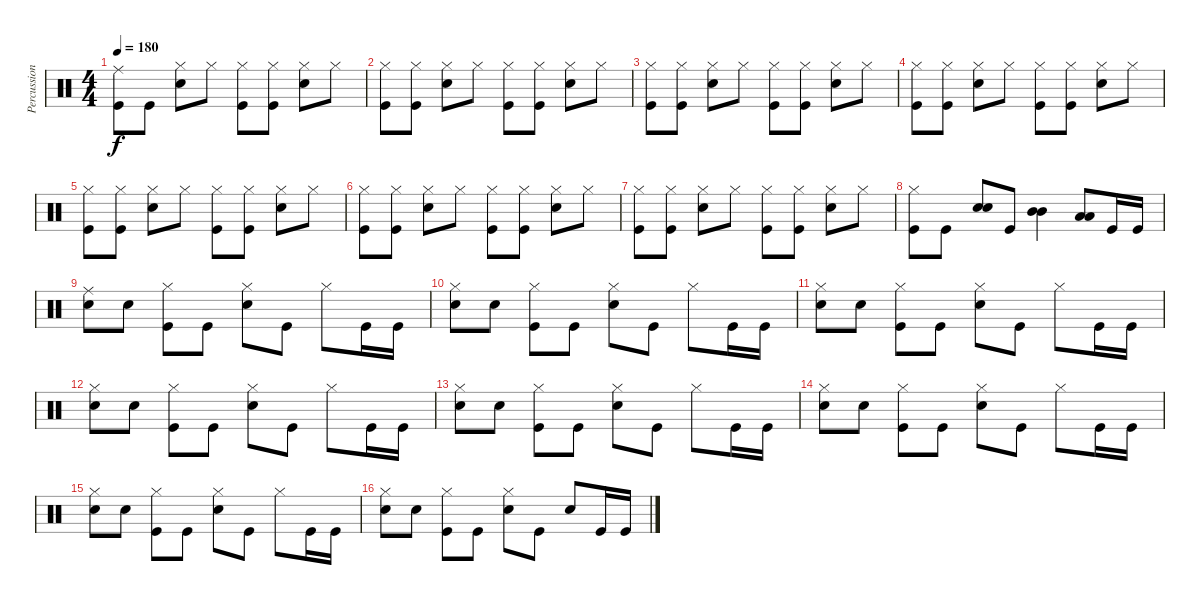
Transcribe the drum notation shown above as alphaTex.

\track ("Percussion" "Percussion") {instrument percussion}
\staff {score}
\articulation defaults
\ts (4 4)
\tempo 180
\clef neutral
\ks c
("Ride (middle)" "Kick (hit)").8{dy f} "Kick (hit)".8 ("Hi-Hat (closed)" "Snare (hit) 2").8 "Hi-Hat (closed)".8 ("Hi-Hat (closed)" "Kick (hit)").8 ("Hi-Hat (closed)" "Kick (hit)").8 ("Hi-Hat (closed)" "Snare (hit) 2").8 "Hi-Hat (closed)".8 |
("Hi-Hat (closed)" "Kick (hit)").8 ("Hi-Hat (closed)" "Kick (hit)").8 ("Hi-Hat (closed)" "Snare (hit) 2").8 "Hi-Hat (closed)".8 ("Hi-Hat (closed)" "Kick (hit)").8 ("Hi-Hat (closed)" "Kick (hit)").8 ("Hi-Hat (closed)" "Snare (hit) 2").8 "Hi-Hat (closed)".8 |
("Hi-Hat (closed)" "Kick (hit)").8 ("Hi-Hat (closed)" "Kick (hit)").8 ("Hi-Hat (closed)" "Snare (hit) 2").8 "Hi-Hat (closed)".8 ("Hi-Hat (closed)" "Kick (hit)").8 ("Hi-Hat (closed)" "Kick (hit)").8 ("Hi-Hat (closed)" "Snare (hit) 2").8 "Hi-Hat (closed)".8 |
("Hi-Hat (closed)" "Kick (hit)").8 ("Hi-Hat (closed)" "Kick (hit)").8 ("Hi-Hat (closed)" "Snare (hit) 2").8 "Hi-Hat (closed)".8 ("Hi-Hat (closed)" "Kick (hit)").8 ("Hi-Hat (closed)" "Kick (hit)").8 ("Hi-Hat (closed)" "Snare (hit) 2").8 "Hi-Hat (closed)".8 |
("Hi-Hat (closed)" "Kick (hit)").8 ("Hi-Hat (closed)" "Kick (hit)").8 ("Hi-Hat (closed)" "Snare (hit) 2").8 "Hi-Hat (closed)".8 ("Hi-Hat (closed)" "Kick (hit)").8 ("Hi-Hat (closed)" "Kick (hit)").8 ("Hi-Hat (closed)" "Snare (hit) 2").8 "Hi-Hat (closed)".8 |
("Hi-Hat (closed)" "Kick (hit)").8 ("Hi-Hat (closed)" "Kick (hit)").8 ("Hi-Hat (closed)" "Snare (hit) 2").8 "Hi-Hat (closed)".8 ("Hi-Hat (closed)" "Kick (hit)").8 ("Hi-Hat (closed)" "Kick (hit)").8 ("Hi-Hat (closed)" "Snare (hit) 2").8 "Hi-Hat (closed)".8 |
("Hi-Hat (closed)" "Kick (hit)").8 ("Hi-Hat (closed)" "Kick (hit)").8 ("Hi-Hat (closed)" "Snare (hit) 2").8 "Hi-Hat (closed)".8 ("Hi-Hat (closed)" "Kick (hit)").8 ("Hi-Hat (closed)" "Kick (hit)").8 ("Hi-Hat (closed)" "Snare (hit) 2").8 "Hi-Hat (closed)".8 |
("Hi-Hat (closed)" "Kick (hit)").8 "Kick (hit)".8 ("Snare (hit) 2" "Electric Snare (hit)").8 "Kick (hit)".8 ("Mid Tom (hit)" "Mid Tom (hit)").4 ("Low Tom (hit)" "Low Tom (hit)").8 "Kick (hit)".16 "Kick (hit)".16 |
("Ride (middle)" "Snare (hit) 2").8 "Snare (hit) 2".8 ("Hi-Hat (closed)" "Kick (hit)").8 "Kick (hit)".8 ("Hi-Hat (closed)" "Snare (hit) 2").8 "Kick (hit)".8 "Hi-Hat (closed)".8 "Kick (hit)".16 "Kick (hit)".16 |
("Hi-Hat (closed)" "Snare (hit) 2").8 "Snare (hit) 2".8 ("Hi-Hat (closed)" "Kick (hit)").8 "Kick (hit)".8 ("Hi-Hat (closed)" "Snare (hit) 2").8 "Kick (hit)".8 "Hi-Hat (closed)".8 "Kick (hit)".16 "Kick (hit)".16 |
("Hi-Hat (closed)" "Snare (hit) 2").8 "Snare (hit) 2".8 ("Hi-Hat (closed)" "Kick (hit)").8 "Kick (hit)".8 ("Hi-Hat (closed)" "Snare (hit) 2").8 "Kick (hit)".8 "Hi-Hat (closed)".8 "Kick (hit)".16 "Kick (hit)".16 |
("Hi-Hat (closed)" "Snare (hit) 2").8 "Snare (hit) 2".8 ("Hi-Hat (closed)" "Kick (hit)").8 "Kick (hit)".8 ("Hi-Hat (closed)" "Snare (hit) 2").8 "Kick (hit)".8 "Hi-Hat (closed)".8 "Kick (hit)".16 "Kick (hit)".16 |
("Hi-Hat (closed)" "Snare (hit) 2").8 "Snare (hit) 2".8 ("Hi-Hat (closed)" "Kick (hit)").8 "Kick (hit)".8 ("Hi-Hat (closed)" "Snare (hit) 2").8 "Kick (hit)".8 "Hi-Hat (closed)".8 "Kick (hit)".16 "Kick (hit)".16 |
("Hi-Hat (closed)" "Snare (hit) 2").8 "Snare (hit) 2".8 ("Hi-Hat (closed)" "Kick (hit)").8 "Kick (hit)".8 ("Hi-Hat (closed)" "Snare (hit) 2").8 "Kick (hit)".8 "Hi-Hat (closed)".8 "Kick (hit)".16 "Kick (hit)".16 |
("Hi-Hat (closed)" "Snare (hit) 2").8 "Snare (hit) 2".8 ("Hi-Hat (closed)" "Kick (hit)").8 "Kick (hit)".8 ("Hi-Hat (closed)" "Snare (hit) 2").8 "Kick (hit)".8 "Hi-Hat (closed)".8 "Kick (hit)".16 "Kick (hit)".16 |
("Hi-Hat (closed)" "Snare (hit) 2").8 "Snare (hit) 2".8 ("Hi-Hat (closed)" "Kick (hit)").8 "Kick (hit)".8 ("Hi-Hat (closed)" "Snare (hit) 2").8 "Kick (hit)".8 "Snare (hit) 2".8 "Kick (hit)".16 "Kick (hit)".16
